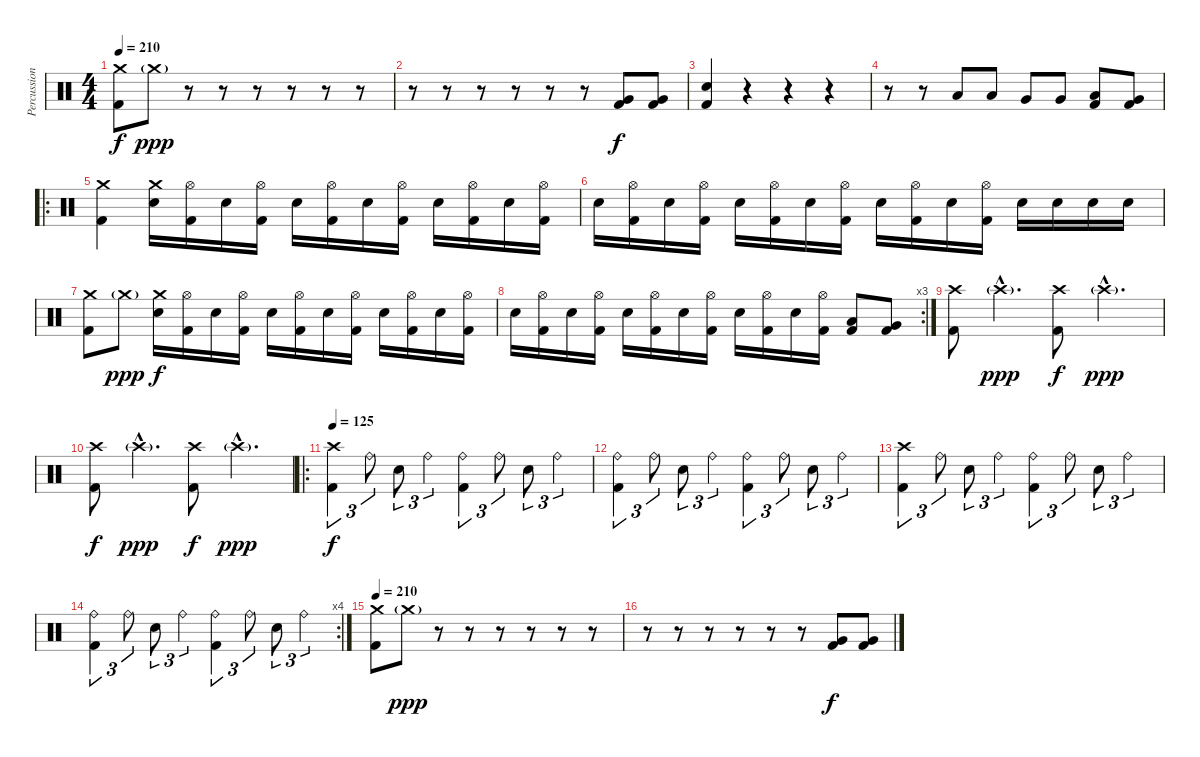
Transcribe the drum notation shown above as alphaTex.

\track ("Percussion" "Percussion") {instrument percussion}
\staff {score}
\articulation defaults
\ts (4 4)
\tempo 210
\clef neutral
\ks c
("Crash medium (hit)" "Kick (hit) 2").8{dy f} "Crash medium (hit)"{g}.8{dy ppp} r.8 r.8 r.8 r.8 r.8 r.8 |
r.8 r.8 r.8 r.8 r.8 r.8 ("Very Low Tom (hit)" "Kick (hit) 2").8{dy f} ("Very Low Tom (hit)" "Kick (hit) 2").8 |
("Electric Snare (hit)" "Kick (hit) 2").4 r.4 r.4 r.4 |
r.8 r.8 "Low Tom (hit)".8 "Low Tom (hit)".8 "Very Low Tom (hit)".8 "Very Low Tom (hit)".8 ("Low Tom (hit)" "Kick (hit) 2").8 ("Very Low Tom (hit)" "Kick (hit) 2").8 |
\ro
("Crash medium (hit)" "Kick (hit) 2").4 ("Crash medium (hit)" "Electric Snare (hit)").16 ("Hi-Hat (open)" "Kick (hit) 2").16 "Electric Snare (hit)".16 ("Hi-Hat (open)" "Kick (hit) 2").16 "Electric Snare (hit)".16 ("Hi-Hat (open)" "Kick (hit) 2").16 "Electric Snare (hit)".16 ("Hi-Hat (open)" "Kick (hit) 2").16 "Electric Snare (hit)".16 ("Hi-Hat (open)" "Kick (hit) 2").16 "Electric Snare (hit)".16 ("Hi-Hat (open)" "Kick (hit) 2").16 |
"Electric Snare (hit)".16 ("Hi-Hat (open)" "Kick (hit) 2").16 "Electric Snare (hit)".16 ("Hi-Hat (open)" "Kick (hit) 2").16 "Electric Snare (hit)".16 ("Hi-Hat (open)" "Kick (hit) 2").16 "Electric Snare (hit)".16 ("Hi-Hat (open)" "Kick (hit) 2").16 "Electric Snare (hit)".16 ("Hi-Hat (open)" "Kick (hit) 2").16 "Electric Snare (hit)".16 ("Hi-Hat (open)" "Kick (hit) 2").16 "Snare (hit) 2".16 "Snare (hit) 2".16 "Snare (hit) 2".16 "Snare (hit) 2".16 |
("Crash medium (hit)" "Kick (hit) 2").8 "Crash medium (hit)"{g}.8{dy ppp} ("Crash medium (hit)" "Electric Snare (hit)").16{dy f} ("Hi-Hat (open)" "Kick (hit) 2").16 "Electric Snare (hit)".16 ("Hi-Hat (open)" "Kick (hit) 2").16 "Electric Snare (hit)".16 ("Hi-Hat (open)" "Kick (hit) 2").16 "Electric Snare (hit)".16 ("Hi-Hat (open)" "Kick (hit) 2").16 "Electric Snare (hit)".16 ("Hi-Hat (open)" "Kick (hit) 2").16 "Electric Snare (hit)".16 ("Hi-Hat (open)" "Kick (hit) 2").16 |
\rc 3 "Electric Snare (hit)".16
("Hi-Hat (open)" "Kick (hit) 2").16 "Electric Snare (hit)".16 ("Hi-Hat (open)" "Kick (hit) 2").16 "Electric Snare (hit)".16 ("Hi-Hat (open)" "Kick (hit) 2").16 "Electric Snare (hit)".16 ("Hi-Hat (open)" "Kick (hit) 2").16 "Electric Snare (hit)".16 ("Hi-Hat (open)" "Kick (hit) 2").16 "Electric Snare (hit)".16 ("Hi-Hat (open)" "Kick (hit) 2").16 ("Low Tom (hit)" "Kick (hit) 2").8 ("Very Low Tom (hit)" "Kick (hit) 2").8 |
("Crash high (hit)" "Kick (hit) 2").8 "Crash high (hit)"{g hac}.4{d dy ppp} ("Crash high (hit)" "Kick (hit) 2").8{dy f} "Crash high (hit)"{g hac}.4{d dy ppp} |
("Crash high (hit)" "Kick (hit) 2").8{dy f} "Crash high (hit)"{g hac}.4{d dy ppp} ("Crash high (hit)" "Kick (hit) 2").8{dy f} "Crash high (hit)"{g hac}.4{d dy ppp} |
\ro
\tempo 130
\tempo 125
("Crash high (hit)" "Kick (hit) 2").4{tu (3 2) dy f} "Ride (bell)".8{tu (3 2)} "Snare (hit) 2".8{tu (3 2)} "Ride (bell)".4{tu (3 2)} ("Ride (bell)" "Kick (hit) 2").4{tu (3 2)} "Ride (bell)".8{tu (3 2)} "Snare (hit) 2".8{tu (3 2)} "Ride (bell)".4{tu (3 2)} |
("Ride (bell)" "Kick (hit) 2").4{tu (3 2)} "Ride (bell)".8{tu (3 2)} "Snare (hit) 2".8{tu (3 2)} "Ride (bell)".4{tu (3 2)} ("Ride (bell)" "Kick (hit) 2").4{tu (3 2)} "Ride (bell)".8{tu (3 2)} "Snare (hit) 2".8{tu (3 2)} "Ride (bell)".4{tu (3 2)} |
("Crash high (hit)" "Kick (hit) 2").4{tu (3 2)} "Ride (bell)".8{tu (3 2)} "Snare (hit) 2".8{tu (3 2)} "Ride (bell)".4{tu (3 2)} ("Ride (bell)" "Kick (hit) 2").4{tu (3 2)} "Ride (bell)".8{tu (3 2)} "Snare (hit) 2".8{tu (3 2)} "Ride (bell)".4{tu (3 2)} |
\rc 4
("Ride (bell)" "Kick (hit) 2").4{tu (3 2)} "Ride (bell)".8{tu (3 2)} "Snare (hit) 2".8{tu (3 2)} "Ride (bell)".4{tu (3 2)} ("Ride (bell)" "Kick (hit) 2").4{tu (3 2)} "Ride (bell)".8{tu (3 2)} "Snare (hit) 2".8{tu (3 2)} "Ride (bell)".4{tu (3 2)} |
\tempo 210
("Crash medium (hit)" "Kick (hit) 2").8 "Crash medium (hit)"{g}.8{dy ppp} r.8 r.8 r.8 r.8 r.8 r.8 |
r.8 r.8 r.8 r.8 r.8 r.8 ("Very Low Tom (hit)" "Kick (hit) 2").8{dy f} ("Very Low Tom (hit)" "Kick (hit) 2").8
